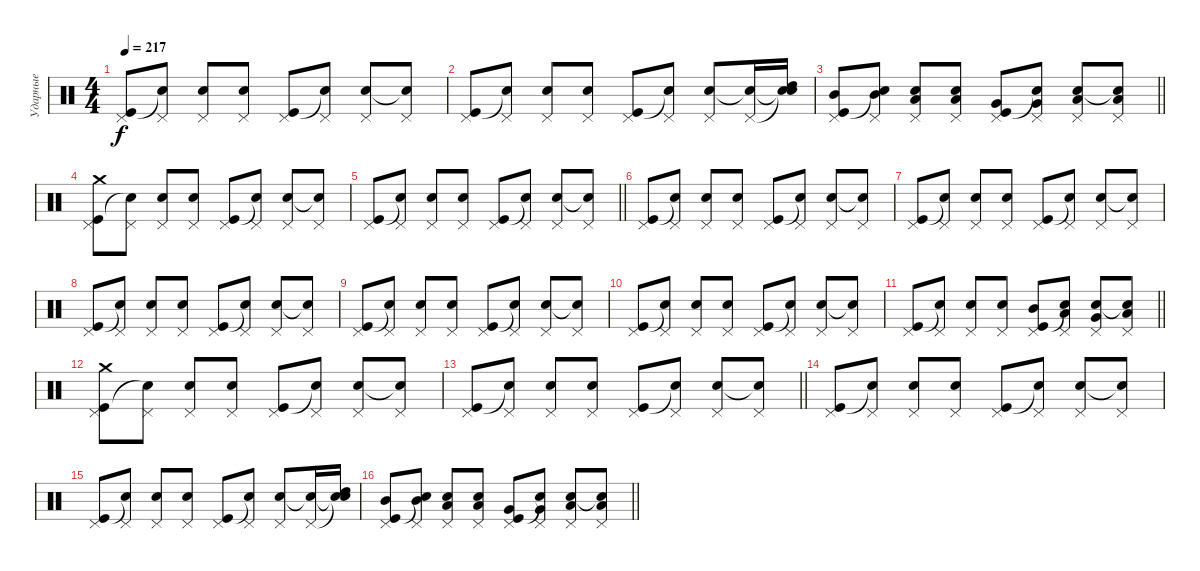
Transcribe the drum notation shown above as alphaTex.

\track ("Ударные" "Ударные") {instrument percussion}
\staff {score}
\articulation defaults
\ts (4 4)
\tempo 217
\clef neutral
\ks c
("Pedal Hi-Hat (hit)" "Kick (hit)").8{dy f} ("Pedal Hi-Hat (hit)" "Snare (hit)"{t}).8 ("Pedal Hi-Hat (hit)" "Snare (hit) 2").8 ("Pedal Hi-Hat (hit)" "Snare (hit) 2").8 ("Pedal Hi-Hat (hit)" "Kick (hit)").8 ("Pedal Hi-Hat (hit)" "Snare (hit)"{t}).8 ("Pedal Hi-Hat (hit)" "Snare (hit) 2").8 ("Pedal Hi-Hat (hit)" "Snare (hit)"{t}).8 |
("Pedal Hi-Hat (hit)" "Kick (hit)").8 ("Pedal Hi-Hat (hit)" "Snare (hit)"{t}).8 ("Pedal Hi-Hat (hit)" "Snare (hit) 2").8 ("Pedal Hi-Hat (hit)" "Snare (hit) 2").8 ("Pedal Hi-Hat (hit)" "Kick (hit)").8 ("Pedal Hi-Hat (hit)" "Snare (hit)"{t}).8 ("Pedal Hi-Hat (hit)" "Snare (hit) 2").8 ("Pedal Hi-Hat (hit)" "Snare (hit)"{t}).16 ("Snare (hit)"{t} "Snare (hit)"{t} "High Tom (hit)").16 |
\barLineRight lightlight
("Pedal Hi-Hat (hit)" "Kick (hit)" "Mid Tom (hit)").8 ("Pedal Hi-Hat (hit)" "Snare (hit)"{t} "Mid Tom (hit)").8 ("Pedal Hi-Hat (hit)" "Snare (hit) 2" "Low Tom (hit)").8 ("Pedal Hi-Hat (hit)" "Snare (hit) 2" "Low Tom (hit)").8 ("Pedal Hi-Hat (hit)" "Kick (hit)" "Very Low Tom (hit)").8 ("Pedal Hi-Hat (hit)" "Snare (hit)"{t} "Very Low Tom (hit)").8 ("Pedal Hi-Hat (hit)" "Snare (hit) 2" "Low Floor Tom (hit)").8 ("Pedal Hi-Hat (hit)" "Snare (hit)"{t} "Low Floor Tom (hit)").8 |
("Pedal Hi-Hat (hit)" "Kick (hit)" "Crash medium (hit)").8 ("Pedal Hi-Hat (hit)" "Snare (hit)"{t}).8 ("Pedal Hi-Hat (hit)" "Snare (hit) 2").8 ("Pedal Hi-Hat (hit)" "Snare (hit) 2").8 ("Pedal Hi-Hat (hit)" "Kick (hit)").8 ("Pedal Hi-Hat (hit)" "Snare (hit)"{t}).8 ("Pedal Hi-Hat (hit)" "Snare (hit) 2").8 ("Pedal Hi-Hat (hit)" "Snare (hit)"{t}).8 |
\barLineRight lightlight
("Pedal Hi-Hat (hit)" "Kick (hit)").8 ("Pedal Hi-Hat (hit)" "Snare (hit)"{t}).8 ("Pedal Hi-Hat (hit)" "Snare (hit) 2").8 ("Pedal Hi-Hat (hit)" "Snare (hit) 2").8 ("Pedal Hi-Hat (hit)" "Kick (hit)").8 ("Pedal Hi-Hat (hit)" "Snare (hit)"{t}).8 ("Pedal Hi-Hat (hit)" "Snare (hit) 2").8 ("Pedal Hi-Hat (hit)" "Snare (hit)"{t}).8 |
("Pedal Hi-Hat (hit)" "Kick (hit)").8 ("Pedal Hi-Hat (hit)" "Snare (hit)"{t}).8 ("Pedal Hi-Hat (hit)" "Snare (hit) 2").8 ("Pedal Hi-Hat (hit)" "Snare (hit) 2").8 ("Pedal Hi-Hat (hit)" "Kick (hit)").8 ("Pedal Hi-Hat (hit)" "Snare (hit)"{t}).8 ("Pedal Hi-Hat (hit)" "Snare (hit) 2").8 ("Pedal Hi-Hat (hit)" "Snare (hit)"{t}).8 |
("Pedal Hi-Hat (hit)" "Kick (hit)").8 ("Pedal Hi-Hat (hit)" "Snare (hit)"{t}).8 ("Pedal Hi-Hat (hit)" "Snare (hit) 2").8 ("Pedal Hi-Hat (hit)" "Snare (hit) 2").8 ("Pedal Hi-Hat (hit)" "Kick (hit)").8 ("Pedal Hi-Hat (hit)" "Snare (hit)"{t}).8 ("Pedal Hi-Hat (hit)" "Snare (hit) 2").8 ("Pedal Hi-Hat (hit)" "Snare (hit)"{t}).8 |
("Pedal Hi-Hat (hit)" "Kick (hit)").8 ("Pedal Hi-Hat (hit)" "Snare (hit)"{t}).8 ("Pedal Hi-Hat (hit)" "Snare (hit) 2").8 ("Pedal Hi-Hat (hit)" "Snare (hit) 2").8 ("Pedal Hi-Hat (hit)" "Kick (hit)").8 ("Pedal Hi-Hat (hit)" "Snare (hit)"{t}).8 ("Pedal Hi-Hat (hit)" "Snare (hit) 2").8 ("Pedal Hi-Hat (hit)" "Snare (hit)"{t}).8 |
("Pedal Hi-Hat (hit)" "Kick (hit)").8 ("Pedal Hi-Hat (hit)" "Snare (hit)"{t}).8 ("Pedal Hi-Hat (hit)" "Snare (hit) 2").8 ("Pedal Hi-Hat (hit)" "Snare (hit) 2").8 ("Pedal Hi-Hat (hit)" "Kick (hit)").8 ("Pedal Hi-Hat (hit)" "Snare (hit)"{t}).8 ("Pedal Hi-Hat (hit)" "Snare (hit) 2").8 ("Pedal Hi-Hat (hit)" "Snare (hit)"{t}).8 |
("Pedal Hi-Hat (hit)" "Kick (hit)").8 ("Pedal Hi-Hat (hit)" "Snare (hit)"{t}).8 ("Pedal Hi-Hat (hit)" "Snare (hit) 2").8 ("Pedal Hi-Hat (hit)" "Snare (hit) 2").8 ("Pedal Hi-Hat (hit)" "Kick (hit)").8 ("Pedal Hi-Hat (hit)" "Snare (hit)"{t}).8 ("Pedal Hi-Hat (hit)" "Snare (hit) 2").8 ("Pedal Hi-Hat (hit)" "Snare (hit)"{t}).8 |
\barLineRight lightlight
("Pedal Hi-Hat (hit)" "Kick (hit)").8 ("Pedal Hi-Hat (hit)" "Snare (hit)"{t}).8 ("Pedal Hi-Hat (hit)" "Snare (hit) 2").8 ("Pedal Hi-Hat (hit)" "Snare (hit) 2").8 ("Pedal Hi-Hat (hit)" "Kick (hit)" "Mid Tom (hit)").8 ("Pedal Hi-Hat (hit)" "Snare (hit)"{t} "Low Tom (hit)").8 ("Pedal Hi-Hat (hit)" "Snare (hit) 2" "Very Low Tom (hit)").8 ("Pedal Hi-Hat (hit)" "Snare (hit)"{t} "Low Floor Tom (hit)").8 |
("Pedal Hi-Hat (hit)" "Kick (hit)" "Crash medium (hit)").8 ("Pedal Hi-Hat (hit)" "Snare (hit)"{t}).8 ("Pedal Hi-Hat (hit)" "Snare (hit) 2").8 ("Pedal Hi-Hat (hit)" "Snare (hit) 2").8 ("Pedal Hi-Hat (hit)" "Kick (hit)").8 ("Pedal Hi-Hat (hit)" "Snare (hit)"{t}).8 ("Pedal Hi-Hat (hit)" "Snare (hit) 2").8 ("Pedal Hi-Hat (hit)" "Snare (hit)"{t}).8 |
\barLineRight lightlight
("Pedal Hi-Hat (hit)" "Kick (hit)").8 ("Pedal Hi-Hat (hit)" "Snare (hit)"{t}).8 ("Pedal Hi-Hat (hit)" "Snare (hit) 2").8 ("Pedal Hi-Hat (hit)" "Snare (hit) 2").8 ("Pedal Hi-Hat (hit)" "Kick (hit)").8 ("Pedal Hi-Hat (hit)" "Snare (hit)"{t}).8 ("Pedal Hi-Hat (hit)" "Snare (hit) 2").8 ("Pedal Hi-Hat (hit)" "Snare (hit)"{t}).8 |
("Pedal Hi-Hat (hit)" "Kick (hit)").8 ("Pedal Hi-Hat (hit)" "Snare (hit)"{t}).8 ("Pedal Hi-Hat (hit)" "Snare (hit) 2").8 ("Pedal Hi-Hat (hit)" "Snare (hit) 2").8 ("Pedal Hi-Hat (hit)" "Kick (hit)").8 ("Pedal Hi-Hat (hit)" "Snare (hit)"{t}).8 ("Pedal Hi-Hat (hit)" "Snare (hit) 2").8 ("Pedal Hi-Hat (hit)" "Snare (hit)"{t}).8 |
("Pedal Hi-Hat (hit)" "Kick (hit)").8 ("Pedal Hi-Hat (hit)" "Snare (hit)"{t}).8 ("Pedal Hi-Hat (hit)" "Snare (hit) 2").8 ("Pedal Hi-Hat (hit)" "Snare (hit) 2").8 ("Pedal Hi-Hat (hit)" "Kick (hit)").8 ("Pedal Hi-Hat (hit)" "Snare (hit)"{t}).8 ("Pedal Hi-Hat (hit)" "Snare (hit) 2").8 ("Pedal Hi-Hat (hit)" "Snare (hit)"{t}).16 ("Snare (hit)"{t} "Snare (hit)"{t} "High Tom (hit)").16 |
\barLineRight lightlight
("Pedal Hi-Hat (hit)" "Kick (hit)" "Mid Tom (hit)").8 ("Pedal Hi-Hat (hit)" "Snare (hit)"{t} "Mid Tom (hit)").8 ("Pedal Hi-Hat (hit)" "Snare (hit) 2" "Low Tom (hit)").8 ("Pedal Hi-Hat (hit)" "Snare (hit) 2" "Low Tom (hit)").8 ("Pedal Hi-Hat (hit)" "Kick (hit)" "Very Low Tom (hit)").8 ("Pedal Hi-Hat (hit)" "Snare (hit)"{t} "Very Low Tom (hit)").8 ("Pedal Hi-Hat (hit)" "Snare (hit) 2" "Low Floor Tom (hit)").8 ("Pedal Hi-Hat (hit)" "Snare (hit)"{t} "Low Floor Tom (hit)").8
